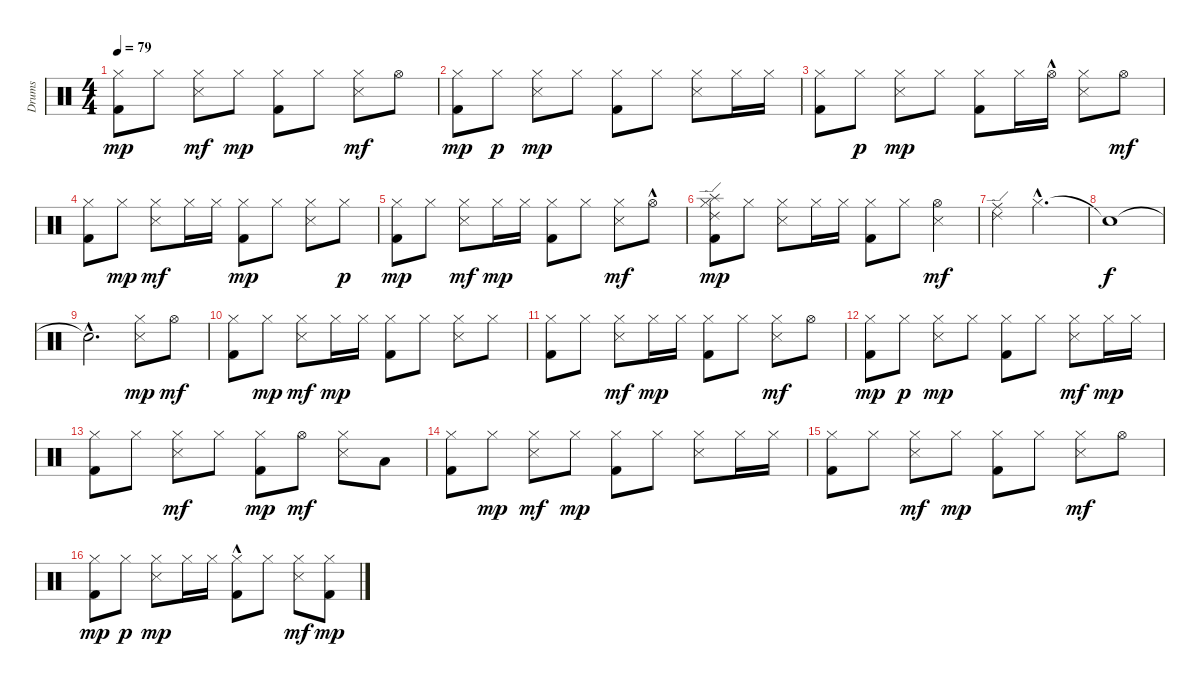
\track ("Drums" "Drums") {instrument percussion}
\staff {score}
\articulation defaults
\ts (4 4)
\tempo 79
\clef neutral
\ks c
("Kick (hit) 2" "Hi-Hat (closed)").8{dy mp} "Hi-Hat (closed)".8 ("Snare (side stick) 3" "Hi-Hat (closed)").8{dy mf} "Hi-Hat (closed)".8{dy mp} ("Kick (hit) 2" "Hi-Hat (closed)").8 "Hi-Hat (closed)".8 ("Snare (side stick) 3" "Hi-Hat (closed)").8{dy mf} "Hi-Hat (open)".8 |
("Kick (hit) 2" "Hi-Hat (closed)").8{dy mp} "Hi-Hat (closed)".8{dy p} ("Snare (side stick) 3" "Hi-Hat (closed)").8{dy mp} "Hi-Hat (closed)".8 ("Kick (hit) 2" "Hi-Hat (closed)").8 "Hi-Hat (closed)".8 ("Snare (side stick) 3" "Hi-Hat (closed)").8 "Hi-Hat (closed)".16 "Hi-Hat (closed)".16 |
("Kick (hit) 2" "Hi-Hat (closed)").8 "Hi-Hat (closed)".8{dy p} ("Snare (side stick) 3" "Hi-Hat (closed)").8{dy mp} "Hi-Hat (closed)".8 ("Kick (hit) 2" "Hi-Hat (closed)").8 "Hi-Hat (closed)".16 "Hi-Hat (open)"{hac}.16 ("Snare (side stick) 3" "Hi-Hat (closed)").8 "Hi-Hat (open)".8{dy mf} |
("Kick (hit) 2" "Hi-Hat (closed)").8 "Hi-Hat (closed)".8{dy mp} ("Snare (side stick) 3" "Hi-Hat (closed)").8{dy mf} "Hi-Hat (closed)".16 "Hi-Hat (closed)".16 ("Kick (hit) 2" "Hi-Hat (closed)").8{dy mp} "Hi-Hat (closed)".8 ("Snare (side stick) 3" "Hi-Hat (closed)").8 "Hi-Hat (closed)".8{dy p} |
("Kick (hit) 2" "Hi-Hat (closed)").8{dy mp} "Hi-Hat (closed)".8 ("Snare (side stick) 3" "Hi-Hat (closed)").8{dy mf} "Hi-Hat (closed)".16{dy mp} "Hi-Hat (closed)".16 ("Kick (hit) 2" "Hi-Hat (closed)").8 "Hi-Hat (closed)".8 ("Snare (side stick) 3" "Hi-Hat (closed)").8{dy mf} "Hi-Hat (open)"{hac}.8 |
("Kick (hit) 2" "Hi-Hat (closed)" "Splash (hit)" "Ride (edge) 2").8{dy mp} "Hi-Hat (closed)".8 ("Snare (side stick) 3" "Hi-Hat (closed)").8 "Hi-Hat (closed)".16 "Hi-Hat (closed)".16 ("Kick (hit) 2" "Hi-Hat (closed)").8 "Hi-Hat (closed)".8 ("Snare (side stick) 3" "Hi-Hat (open)").4{dy mf} |
("Ride (edge) 2" "Ride (middle)").4 "Hi-Hat (closed)"{hac}.2{d} |
"Snare (hit)"{t}.1{dy f} |
"Snare (hit)"{hac t}.2{d} ("Snare (side stick) 3" "Hi-Hat (closed)").8{dy mp} "Hi-Hat (open)".8{dy mf} |
("Kick (hit) 2" "Hi-Hat (closed)").8 "Hi-Hat (closed)".8{dy mp} ("Snare (side stick) 3" "Hi-Hat (closed)").8{dy mf} "Hi-Hat (closed)".16{dy mp} "Hi-Hat (closed)".16 ("Kick (hit) 2" "Hi-Hat (closed)").8 "Hi-Hat (closed)".8 ("Snare (side stick) 3" "Hi-Hat (closed)").8 "Hi-Hat (closed)".8 |
("Kick (hit) 2" "Hi-Hat (closed)").8 "Hi-Hat (closed)".8 ("Snare (side stick) 3" "Hi-Hat (closed)").8{dy mf} "Hi-Hat (closed)".16{dy mp} "Hi-Hat (closed)".16 ("Kick (hit) 2" "Hi-Hat (closed)").8 "Hi-Hat (closed)".8 ("Snare (side stick) 3" "Hi-Hat (closed)").8{dy mf} "Hi-Hat (open)".8 |
("Kick (hit) 2" "Hi-Hat (closed)").8{dy mp} "Hi-Hat (closed)".8{dy p} ("Snare (side stick) 3" "Hi-Hat (closed)").8{dy mp} "Hi-Hat (closed)".8 ("Kick (hit) 2" "Hi-Hat (closed)").8 "Hi-Hat (closed)".8 ("Snare (side stick) 3" "Hi-Hat (closed)").8{dy mf} "Hi-Hat (closed)".16{dy mp} "Hi-Hat (closed)".16 |
("Kick (hit) 2" "Hi-Hat (closed)").8 "Hi-Hat (closed)".8 ("Snare (side stick) 3" "Hi-Hat (closed)").8{dy mf} "Hi-Hat (closed)".8 ("Kick (hit) 2" "Hi-Hat (closed)").8{dy mp} "Hi-Hat (open)".8{dy mf} ("Snare (side stick) 3" "Hi-Hat (closed)").8 "Low Floor Tom (hit)".8 |
("Kick (hit) 2" "Hi-Hat (closed)").8 "Hi-Hat (closed)".8{dy mp} ("Snare (side stick) 3" "Hi-Hat (closed)").8{dy mf} "Hi-Hat (closed)".8{dy mp} ("Kick (hit) 2" "Hi-Hat (closed)").8 "Hi-Hat (closed)".8 ("Snare (side stick) 3" "Hi-Hat (closed)").8 "Hi-Hat (closed)".16 "Hi-Hat (closed)".16 |
("Kick (hit) 2" "Hi-Hat (closed)").8 "Hi-Hat (closed)".8 ("Snare (side stick) 3" "Hi-Hat (closed)").8{dy mf} "Hi-Hat (closed)".8{dy mp} ("Kick (hit) 2" "Hi-Hat (closed)").8 "Hi-Hat (closed)".8 ("Snare (side stick) 3" "Hi-Hat (closed)").8{dy mf} "Hi-Hat (open)".8 |
("Kick (hit) 2" "Hi-Hat (closed)").8{dy mp} "Hi-Hat (closed)".8{dy p} ("Snare (side stick) 3" "Hi-Hat (closed)").8{dy mp} "Hi-Hat (closed)".16 "Hi-Hat (closed)".16 ("Kick (hit) 2"{hac} "Hi-Hat (closed)").8 "Hi-Hat (closed)".8 ("Snare (side stick) 3" "Hi-Hat (closed)").8{dy mf} ("Kick (hit) 2" "Hi-Hat (closed)").8{dy mp}
